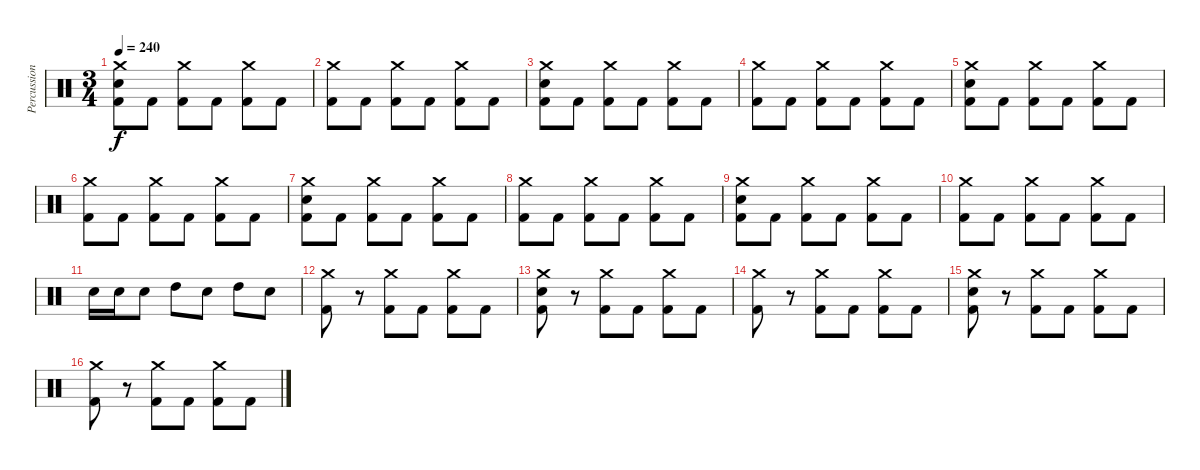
\track ("Percussion" "Percussion") {instrument percussion}
\staff {score}
\articulation defaults
\ts (3 4)
\tempo 240
\clef neutral
\ks c
("Crash medium (hit)" "Electric Snare (hit)" "Kick (hit) 2").8{dy f} "Kick (hit) 2".8 ("Crash medium (hit)" "Kick (hit) 2").8 "Kick (hit) 2".8 ("Crash medium (hit)" "Kick (hit) 2").8 "Kick (hit) 2".8 |
("Crash medium (hit)" "Kick (hit) 2").8 "Kick (hit) 2".8 ("Crash medium (hit)" "Kick (hit) 2").8 "Kick (hit) 2".8 ("Crash medium (hit)" "Kick (hit) 2").8 "Kick (hit) 2".8 |
("Crash medium (hit)" "Electric Snare (hit)" "Kick (hit) 2").8 "Kick (hit) 2".8 ("Crash medium (hit)" "Kick (hit) 2").8 "Kick (hit) 2".8 ("Crash medium (hit)" "Kick (hit) 2").8 "Kick (hit) 2".8 |
("Crash medium (hit)" "Kick (hit) 2").8 "Kick (hit) 2".8 ("Crash medium (hit)" "Kick (hit) 2").8 "Kick (hit) 2".8 ("Crash medium (hit)" "Kick (hit) 2").8 "Kick (hit) 2".8 |
("Crash medium (hit)" "Electric Snare (hit)" "Kick (hit) 2").8 "Kick (hit) 2".8 ("Crash medium (hit)" "Kick (hit) 2").8 "Kick (hit) 2".8 ("Crash medium (hit)" "Kick (hit) 2").8 "Kick (hit) 2".8 |
("Crash medium (hit)" "Kick (hit) 2").8 "Kick (hit) 2".8 ("Crash medium (hit)" "Kick (hit) 2").8 "Kick (hit) 2".8 ("Crash medium (hit)" "Kick (hit) 2").8 "Kick (hit) 2".8 |
("Crash medium (hit)" "Electric Snare (hit)" "Kick (hit) 2").8 "Kick (hit) 2".8 ("Crash medium (hit)" "Kick (hit) 2").8 "Kick (hit) 2".8 ("Crash medium (hit)" "Kick (hit) 2").8 "Kick (hit) 2".8 |
("Crash medium (hit)" "Kick (hit) 2").8 "Kick (hit) 2".8 ("Crash medium (hit)" "Kick (hit) 2").8 "Kick (hit) 2".8 ("Crash medium (hit)" "Kick (hit) 2").8 "Kick (hit) 2".8 |
("Crash medium (hit)" "Electric Snare (hit)" "Kick (hit) 2").8 "Kick (hit) 2".8 ("Crash medium (hit)" "Kick (hit) 2").8 "Kick (hit) 2".8 ("Crash medium (hit)" "Kick (hit) 2").8 "Kick (hit) 2".8 |
("Crash medium (hit)" "Kick (hit) 2").8 "Kick (hit) 2".8 ("Crash medium (hit)" "Kick (hit) 2").8 "Kick (hit) 2".8 ("Crash medium (hit)" "Kick (hit) 2").8 "Kick (hit) 2".8 |
"Electric Snare (hit)".16 "Electric Snare (hit)".16 "Electric Snare (hit)".8 "High Tom (hit)".8 "Electric Snare (hit)".8 "High Tom (hit)".8 "Electric Snare (hit)".8 |
("Crash medium (hit)" "Kick (hit) 2").8 r.8 ("Crash medium (hit)" "Kick (hit) 2").8 "Kick (hit) 2".8 ("Crash medium (hit)" "Kick (hit) 2").8 "Kick (hit) 2".8 |
("Crash medium (hit)" "Electric Snare (hit)" "Kick (hit) 2").8 r.8 ("Crash medium (hit)" "Kick (hit) 2").8 "Kick (hit) 2".8 ("Crash medium (hit)" "Kick (hit) 2").8 "Kick (hit) 2".8 |
("Crash medium (hit)" "Kick (hit) 2").8 r.8 ("Crash medium (hit)" "Kick (hit) 2").8 "Kick (hit) 2".8 ("Crash medium (hit)" "Kick (hit) 2").8 "Kick (hit) 2".8 |
("Crash medium (hit)" "Electric Snare (hit)" "Kick (hit) 2").8 r.8 ("Crash medium (hit)" "Kick (hit) 2").8 "Kick (hit) 2".8 ("Crash medium (hit)" "Kick (hit) 2").8 "Kick (hit) 2".8 |
("Crash medium (hit)" "Kick (hit) 2").8 r.8 ("Crash medium (hit)" "Kick (hit) 2").8 "Kick (hit) 2".8 ("Crash medium (hit)" "Kick (hit) 2").8 "Kick (hit) 2".8
